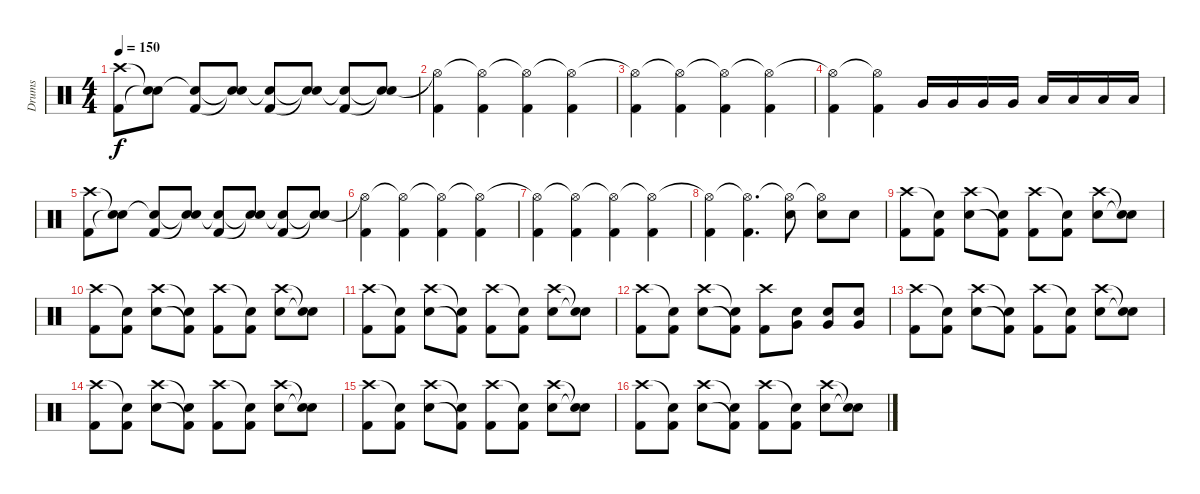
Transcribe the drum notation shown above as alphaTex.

\track ("Drums" "Drums") {instrument percussion bank 127}
\staff {score}
\articulation defaults
\ts (4 4)
\tempo 150
\clef neutral
\ks c
("Crash high (hit)" "Kick (hit) 2").8{dy f} ("Snare (hit)"{t} "Snare (hit)"{t}).8 ("Snare (hit)"{t} "Kick (hit) 2").8 ("Snare (hit)"{t} "Snare (hit)"{t}).8 ("Snare (hit)"{t} "Kick (hit) 2").8 ("Snare (hit)"{t} "Snare (hit)"{t}).8 ("Snare (hit)"{t} "Kick (hit) 2").8 ("Snare (hit)"{t} "Snare (hit)"{t}).8 |
("Hi-Hat (open)"{t} "Kick (hit) 2").4 ("Hi-Hat (open)"{t} "Kick (hit) 2").4 ("Hi-Hat (open)"{t} "Kick (hit) 2").4 ("Hi-Hat (open)"{t} "Kick (hit) 2").4 |
("Hi-Hat (open)"{t} "Kick (hit) 2").4 ("Hi-Hat (open)"{t} "Kick (hit) 2").4 ("Hi-Hat (open)"{t} "Kick (hit) 2").4 ("Hi-Hat (open)"{t} "Kick (hit) 2").4 |
("Hi-Hat (open)"{t} "Kick (hit) 2").4 ("Hi-Hat (open)"{t} "Kick (hit) 2").4 "Very Low Tom (hit)".16 "Very Low Tom (hit)".16 "Very Low Tom (hit)".16 "Very Low Tom (hit)".16 "Low Floor Tom (hit)".16 "Low Floor Tom (hit)".16 "Low Floor Tom (hit)".16 "Low Floor Tom (hit)".16 |
("Crash high (hit)" "Kick (hit) 2").8 ("Snare (hit)"{t} "Snare (hit)"{t}).8 ("Snare (hit)"{t} "Kick (hit) 2").8 ("Snare (hit)"{t} "Snare (hit)"{t}).8 ("Snare (hit)"{t} "Kick (hit) 2").8 ("Snare (hit)"{t} "Snare (hit)"{t}).8 ("Snare (hit)"{t} "Kick (hit) 2").8 ("Snare (hit)"{t} "Snare (hit)"{t}).8 |
("Hi-Hat (open)"{t} "Kick (hit) 2").4 ("Hi-Hat (open)"{t} "Kick (hit) 2").4 ("Hi-Hat (open)"{t} "Kick (hit) 2").4 ("Hi-Hat (open)"{t} "Kick (hit) 2").4 |
("Hi-Hat (open)"{t} "Kick (hit) 2").4 ("Hi-Hat (open)"{t} "Kick (hit) 2").4 ("Hi-Hat (open)"{t} "Kick (hit) 2").4 ("Hi-Hat (open)"{t} "Kick (hit) 2").4 |
("Hi-Hat (open)"{t} "Kick (hit) 2").4 ("Hi-Hat (open)"{t} "Kick (hit) 2").4{d} ("Hi-Hat (open)"{t} "Electric Snare (hit)").8 ("Hi-Hat (open)"{t} "Electric Snare (hit)").8 "Electric Snare (hit)".8 |
("Crash high (hit)" "Kick (hit) 2").8 ("Snare (hit)"{t} "Kick (hit) 2").8 ("Crash high (hit)" "Electric Snare (hit)").8 ("Snare (hit)"{t} "Kick (hit) 2"{t}).8 ("Crash high (hit)" "Kick (hit) 2").8 ("Snare (hit)"{t} "Kick (hit) 2").8 ("Crash high (hit)" "Electric Snare (hit)").8 ("Snare (hit)"{t} "Snare (hit)"{t}).8 |
("Crash high (hit)" "Kick (hit) 2").8 ("Snare (hit)"{t} "Kick (hit) 2").8 ("Crash high (hit)" "Electric Snare (hit)").8 ("Snare (hit)"{t} "Kick (hit) 2"{t}).8 ("Crash high (hit)" "Kick (hit) 2").8 ("Snare (hit)"{t} "Kick (hit) 2").8 ("Crash high (hit)" "Electric Snare (hit)").8 ("Snare (hit)"{t} "Snare (hit)"{t}).8 |
("Crash high (hit)" "Kick (hit) 2").8 ("Snare (hit)"{t} "Kick (hit) 2").8 ("Crash high (hit)" "Electric Snare (hit)").8 ("Snare (hit)"{t} "Kick (hit) 2"{t}).8 ("Crash high (hit)" "Kick (hit) 2").8 ("Snare (hit)"{t} "Kick (hit) 2").8 ("Crash high (hit)" "Electric Snare (hit)").8 ("Snare (hit)"{t} "Snare (hit)"{t}).8 |
("Crash high (hit)" "Kick (hit) 2").8 ("Snare (hit)"{t} "Kick (hit) 2").8 ("Crash high (hit)" "Electric Snare (hit)").8 ("Snare (hit)"{t} "Kick (hit) 2"{t}).8 ("Crash high (hit)" "Kick (hit) 2").8 ("Very Low Tom (hit)" "Electric Snare (hit)").8 ("Very Low Tom (hit)" "Electric Snare (hit)").8 ("Very Low Tom (hit)" "Electric Snare (hit)").8 |
("Crash high (hit)" "Kick (hit) 2").8 ("Snare (hit)"{t} "Kick (hit) 2").8 ("Crash high (hit)" "Electric Snare (hit)").8 ("Snare (hit)"{t} "Kick (hit) 2"{t}).8 ("Crash high (hit)" "Kick (hit) 2").8 ("Snare (hit)"{t} "Kick (hit) 2").8 ("Crash high (hit)" "Electric Snare (hit)").8 ("Snare (hit)"{t} "Snare (hit)"{t}).8 |
("Crash high (hit)" "Kick (hit) 2").8 ("Snare (hit)"{t} "Kick (hit) 2").8 ("Crash high (hit)" "Electric Snare (hit)").8 ("Snare (hit)"{t} "Kick (hit) 2"{t}).8 ("Crash high (hit)" "Kick (hit) 2").8 ("Snare (hit)"{t} "Kick (hit) 2").8 ("Crash high (hit)" "Electric Snare (hit)").8 ("Snare (hit)"{t} "Snare (hit)"{t}).8 |
("Crash high (hit)" "Kick (hit) 2").8 ("Snare (hit)"{t} "Kick (hit) 2").8 ("Crash high (hit)" "Electric Snare (hit)").8 ("Snare (hit)"{t} "Kick (hit) 2"{t}).8 ("Crash high (hit)" "Kick (hit) 2").8 ("Snare (hit)"{t} "Kick (hit) 2").8 ("Crash high (hit)" "Electric Snare (hit)").8 ("Snare (hit)"{t} "Snare (hit)"{t}).8 |
("Crash high (hit)" "Kick (hit) 2").8 ("Snare (hit)"{t} "Kick (hit) 2").8 ("Crash high (hit)" "Electric Snare (hit)").8 ("Snare (hit)"{t} "Kick (hit) 2"{t}).8 ("Crash high (hit)" "Kick (hit) 2").8 ("Snare (hit)"{t} "Kick (hit) 2").8 ("Crash high (hit)" "Electric Snare (hit)").8 ("Snare (hit)"{t} "Snare (hit)"{t}).8
